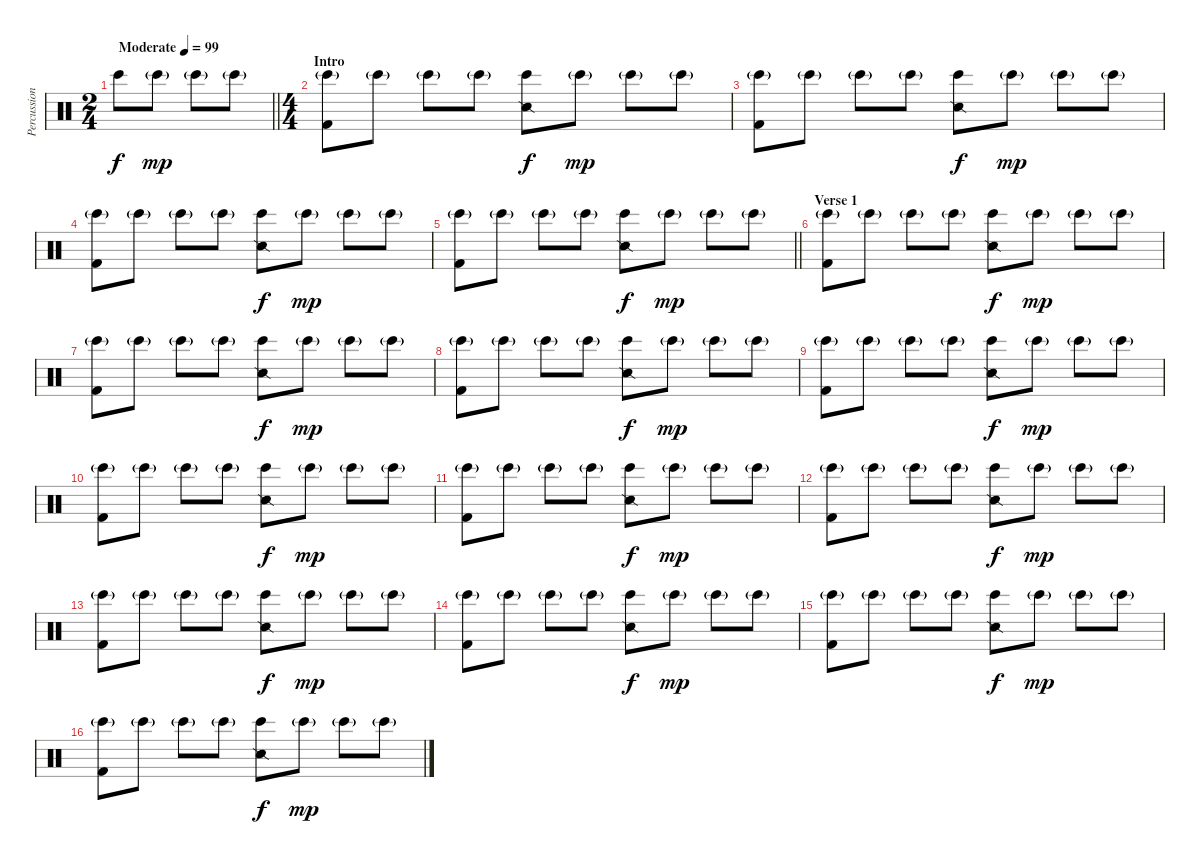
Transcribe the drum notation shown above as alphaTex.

\track ("Percussion" "Percussion") {instrument percussion}
\staff {score}
\articulation defaults
\ts (2 4)
\tempo (99 "Moderate")
\clef neutral
\barLineRight lightlight
\ks c "Bongo High (hit)".8{dy f} "Bongo High (hit)"{g}.8{dy mp} "Bongo High (hit)"{g}.8 "Bongo High (hit)"{g}.8
|
\ts (4 4)
\section ("" "Intro")
("Bongo High (hit)"{g} "Kick (hit) 2").8 "Bongo High (hit)"{g}.8 "Bongo High (hit)"{g}.8 "Bongo High (hit)"{g}.8 ("Bongo High (hit)" "Snare (side stick) 2").8{dy f} "Bongo High (hit)"{g}.8{dy mp} "Bongo High (hit)"{g}.8 "Bongo High (hit)"{g}.8 |
("Bongo High (hit)"{g} "Kick (hit) 2").8 "Bongo High (hit)"{g}.8 "Bongo High (hit)"{g}.8 "Bongo High (hit)"{g}.8 ("Bongo High (hit)" "Snare (side stick) 2").8{dy f} "Bongo High (hit)"{g}.8{dy mp} "Bongo High (hit)"{g}.8 "Bongo High (hit)"{g}.8 |
("Bongo High (hit)"{g} "Kick (hit) 2").8 "Bongo High (hit)"{g}.8 "Bongo High (hit)"{g}.8 "Bongo High (hit)"{g}.8 ("Bongo High (hit)" "Snare (side stick) 2").8{dy f} "Bongo High (hit)"{g}.8{dy mp} "Bongo High (hit)"{g}.8 "Bongo High (hit)"{g}.8 |
\barLineRight lightlight
("Bongo High (hit)"{g} "Kick (hit) 2").8 "Bongo High (hit)"{g}.8 "Bongo High (hit)"{g}.8 "Bongo High (hit)"{g}.8 ("Bongo High (hit)" "Snare (side stick) 2").8{dy f} "Bongo High (hit)"{g}.8{dy mp} "Bongo High (hit)"{g}.8 "Bongo High (hit)"{g}.8 |
\section ("" "Verse 1")
("Bongo High (hit)"{g} "Kick (hit) 2").8 "Bongo High (hit)"{g}.8 "Bongo High (hit)"{g}.8 "Bongo High (hit)"{g}.8 ("Bongo High (hit)" "Snare (side stick) 2").8{dy f} "Bongo High (hit)"{g}.8{dy mp} "Bongo High (hit)"{g}.8 "Bongo High (hit)"{g}.8 |
("Bongo High (hit)"{g} "Kick (hit) 2").8 "Bongo High (hit)"{g}.8 "Bongo High (hit)"{g}.8 "Bongo High (hit)"{g}.8 ("Bongo High (hit)" "Snare (side stick) 2").8{dy f} "Bongo High (hit)"{g}.8{dy mp} "Bongo High (hit)"{g}.8 "Bongo High (hit)"{g}.8 |
("Bongo High (hit)"{g} "Kick (hit) 2").8 "Bongo High (hit)"{g}.8 "Bongo High (hit)"{g}.8 "Bongo High (hit)"{g}.8 ("Bongo High (hit)" "Snare (side stick) 2").8{dy f} "Bongo High (hit)"{g}.8{dy mp} "Bongo High (hit)"{g}.8 "Bongo High (hit)"{g}.8 |
("Bongo High (hit)"{g} "Kick (hit) 2").8 "Bongo High (hit)"{g}.8 "Bongo High (hit)"{g}.8 "Bongo High (hit)"{g}.8 ("Bongo High (hit)" "Snare (side stick) 2").8{dy f} "Bongo High (hit)"{g}.8{dy mp} "Bongo High (hit)"{g}.8 "Bongo High (hit)"{g}.8 |
("Bongo High (hit)"{g} "Kick (hit) 2").8 "Bongo High (hit)"{g}.8 "Bongo High (hit)"{g}.8 "Bongo High (hit)"{g}.8 ("Bongo High (hit)" "Snare (side stick) 2").8{dy f} "Bongo High (hit)"{g}.8{dy mp} "Bongo High (hit)"{g}.8 "Bongo High (hit)"{g}.8 |
("Bongo High (hit)"{g} "Kick (hit) 2").8 "Bongo High (hit)"{g}.8 "Bongo High (hit)"{g}.8 "Bongo High (hit)"{g}.8 ("Bongo High (hit)" "Snare (side stick) 2").8{dy f} "Bongo High (hit)"{g}.8{dy mp} "Bongo High (hit)"{g}.8 "Bongo High (hit)"{g}.8 |
("Bongo High (hit)"{g} "Kick (hit) 2").8 "Bongo High (hit)"{g}.8 "Bongo High (hit)"{g}.8 "Bongo High (hit)"{g}.8 ("Bongo High (hit)" "Snare (side stick) 2").8{dy f} "Bongo High (hit)"{g}.8{dy mp} "Bongo High (hit)"{g}.8 "Bongo High (hit)"{g}.8 |
("Bongo High (hit)"{g} "Kick (hit) 2").8 "Bongo High (hit)"{g}.8 "Bongo High (hit)"{g}.8 "Bongo High (hit)"{g}.8 ("Bongo High (hit)" "Snare (side stick) 2").8{dy f} "Bongo High (hit)"{g}.8{dy mp} "Bongo High (hit)"{g}.8 "Bongo High (hit)"{g}.8 |
("Bongo High (hit)"{g} "Kick (hit) 2").8 "Bongo High (hit)"{g}.8 "Bongo High (hit)"{g}.8 "Bongo High (hit)"{g}.8 ("Bongo High (hit)" "Snare (side stick) 2").8{dy f} "Bongo High (hit)"{g}.8{dy mp} "Bongo High (hit)"{g}.8 "Bongo High (hit)"{g}.8 |
("Bongo High (hit)"{g} "Kick (hit) 2").8 "Bongo High (hit)"{g}.8 "Bongo High (hit)"{g}.8 "Bongo High (hit)"{g}.8 ("Bongo High (hit)" "Snare (side stick) 2").8{dy f} "Bongo High (hit)"{g}.8{dy mp} "Bongo High (hit)"{g}.8 "Bongo High (hit)"{g}.8 |
("Bongo High (hit)"{g} "Kick (hit) 2").8 "Bongo High (hit)"{g}.8 "Bongo High (hit)"{g}.8 "Bongo High (hit)"{g}.8 ("Bongo High (hit)" "Snare (side stick) 2").8{dy f} "Bongo High (hit)"{g}.8{dy mp} "Bongo High (hit)"{g}.8 "Bongo High (hit)"{g}.8
